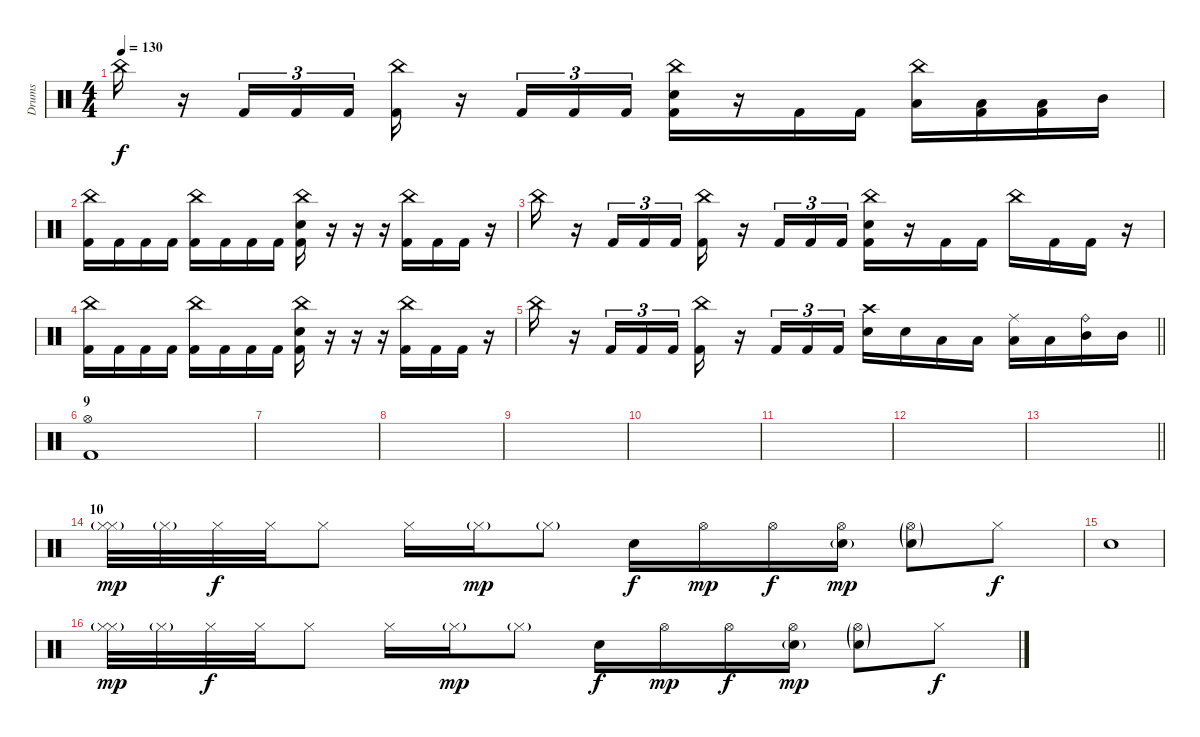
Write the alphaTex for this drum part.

\track ("Drums" "Drums") {instrument percussion}
\staff {score}
\articulation defaults
\ts (4 4)
\tempo 130
\clef neutral
\ks c "China (hit)".16{dy f}
r.16 "Kick (hit) 2".16{tu (3 2)} "Kick (hit) 2".16{tu (3 2)} "Kick (hit) 2".16{tu (3 2)} ("China (hit)" "Kick (hit) 2").16 r.16 "Kick (hit) 2".16{tu (3 2)} "Kick (hit) 2".16{tu (3 2)} "Kick (hit) 2".16{tu (3 2)} ("China (hit)" "Electric Snare (hit)" "Kick (hit) 2").16 r.16 "Kick (hit) 2".16 "Kick (hit) 2".16 ("China (hit)" "Low Tom (hit)").16 ("Low Tom (hit)" "Kick (hit) 2").16 ("Low Floor Tom (hit)" "Kick (hit) 2").16 "Mid Tom (hit)".16 |
("China (hit)" "Kick (hit) 2").16 "Kick (hit) 2".16 "Kick (hit) 2".16 "Kick (hit) 2".16 ("China (hit)" "Kick (hit) 2").16 "Kick (hit) 2".16 "Kick (hit) 2".16 "Kick (hit) 2".16 ("China (hit)" "Electric Snare (hit)" "Kick (hit) 2").16 r.16 r.16 r.16 ("Kick (hit) 2" "China (hit)").16 "Kick (hit) 2".16 "Kick (hit) 2".16 r.16 |
"China (hit)".16 r.16 "Kick (hit) 2".16{tu (3 2)} "Kick (hit) 2".16{tu (3 2)} "Kick (hit) 2".16{tu (3 2)} ("China (hit)" "Kick (hit) 2").16 r.16 "Kick (hit) 2".16{tu (3 2)} "Kick (hit) 2".16{tu (3 2)} "Kick (hit) 2".16{tu (3 2)} ("China (hit)" "Electric Snare (hit)" "Kick (hit) 2").16 r.16 "Kick (hit) 2".16 "Kick (hit) 2".16 "China (hit)".16 "Kick (hit) 2".16 "Kick (hit) 2".16 r.16 |
("China (hit)" "Kick (hit) 2").16 "Kick (hit) 2".16 "Kick (hit) 2".16 "Kick (hit) 2".16 ("China (hit)" "Kick (hit) 2").16 "Kick (hit) 2".16 "Kick (hit) 2".16 "Kick (hit) 2".16 ("China (hit)" "Electric Snare (hit)" "Kick (hit) 2").16 r.16 r.16 r.16 ("Kick (hit) 2" "China (hit)").16 "Kick (hit) 2".16 "Kick (hit) 2".16 r.16 |
\barLineRight lightlight "China (hit)".16
r.16 "Kick (hit) 2".16{tu (3 2)} "Kick (hit) 2".16{tu (3 2)} "Kick (hit) 2".16{tu (3 2)} ("China (hit)" "Kick (hit) 2").16 r.16 "Kick (hit) 2".16{tu (3 2)} "Kick (hit) 2".16{tu (3 2)} "Kick (hit) 2".16{tu (3 2)} ("Crash high (hit)" "Electric Snare (hit)").16 "Electric Snare (hit)".16 "Low Floor Tom (hit)".16 "Low Floor Tom (hit)".16 ("Ride (middle)" "Low Tom (hit)").16 "Low Tom (hit)".16 ("Ride (bell)" "Mid Tom (hit)").16 "Mid Tom (hit)".16 |
\section ("" "9")
("Kick (hit) 2" "Hi-Hat (open)").1 |
|
|
|
|
|
|
\barLineRight lightlight
|
\section ("" "10")
("Hi-Hat (closed)"{g} "Hi-Hat (closed)").32{dy mp} "Hi-Hat (closed)"{g}.32 "Hi-Hat (closed)".32{dy f} "Hi-Hat (closed)".32 "Hi-Hat (closed)".8 "Hi-Hat (closed)".16 "Hi-Hat (closed)"{g}.16{dy mp} "Hi-Hat (closed)"{g}.8 "Snare (hit) 2".16{dy f} "Hi-Hat (open)".16{dy mp} "Hi-Hat (open)".16{dy f} ("Hi-Hat (open)" "Snare (hit) 2"{g}).16{dy mp} ("Hi-Hat (open)"{g} "Snare (hit) 2"{g}).8 "Hi-Hat (closed)".8{dy f} |
"Snare (hit) 2".1 |
("Hi-Hat (closed)"{g} "Hi-Hat (closed)").32{dy mp} "Hi-Hat (closed)"{g}.32 "Hi-Hat (closed)".32{dy f} "Hi-Hat (closed)".32 "Hi-Hat (closed)".8 "Hi-Hat (closed)".16 "Hi-Hat (closed)"{g}.16{dy mp} "Hi-Hat (closed)"{g}.8 "Snare (hit) 2".16{dy f} "Hi-Hat (open)".16{dy mp} "Hi-Hat (open)".16{dy f} ("Hi-Hat (open)" "Snare (hit) 2"{g}).16{dy mp} ("Hi-Hat (open)"{g} "Snare (hit) 2"{g}).8 "Hi-Hat (closed)".8{dy f}
